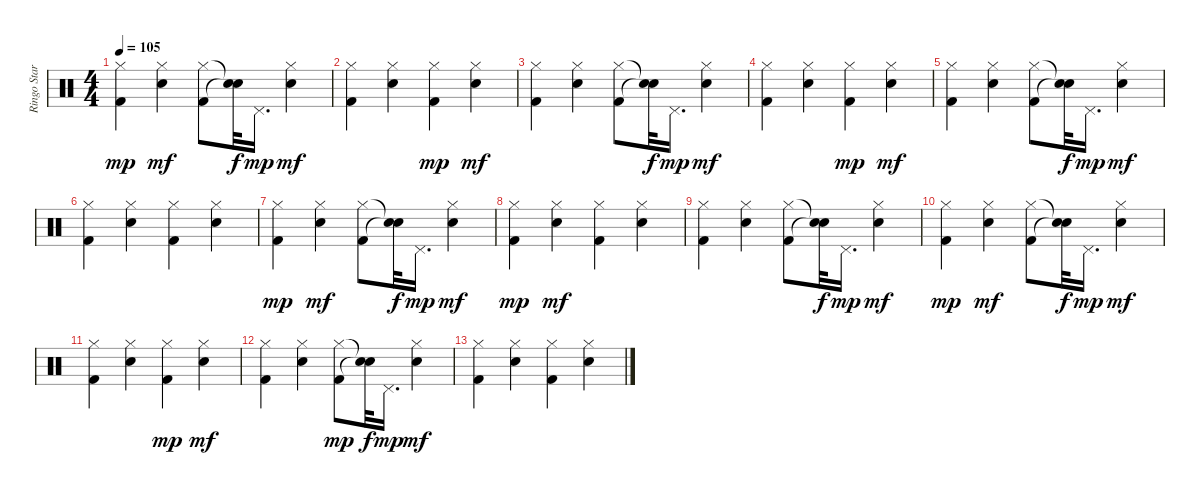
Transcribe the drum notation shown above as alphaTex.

\track ("Ringo Starr" "Ringo Star") {instrument percussion}
\staff {score}
\articulation defaults
\ts (4 4)
\tempo 105
\clef neutral
\ks c
("Kick (hit) 2" "Hi-Hat (closed)").4{dy mp} ("Snare (hit) 2" "Hi-Hat (closed)").4{dy mf} ("Kick (hit) 2" "Hi-Hat (closed)").8 ("Snare (hit)"{t} "Snare (hit)"{t}).32{dy f} "Pedal Hi-Hat (hit)".16{d dy mp} ("Snare (hit) 2" "Hi-Hat (closed)").4{dy mf} |
("Kick (hit) 2" "Hi-Hat (closed)").4 ("Snare (hit) 2" "Hi-Hat (closed)").4 ("Kick (hit) 2" "Hi-Hat (closed)").4{dy mp} ("Snare (hit) 2" "Hi-Hat (closed)").4{dy mf} |
("Kick (hit) 2" "Hi-Hat (closed)").4 ("Snare (hit) 2" "Hi-Hat (closed)").4 ("Kick (hit) 2" "Hi-Hat (closed)").8 ("Snare (hit)"{t} "Snare (hit)"{t}).32{dy f} "Pedal Hi-Hat (hit)".16{d dy mp} ("Snare (hit) 2" "Hi-Hat (closed)").4{dy mf} |
("Kick (hit) 2" "Hi-Hat (closed)").4 ("Snare (hit) 2" "Hi-Hat (closed)").4 ("Kick (hit) 2" "Hi-Hat (closed)").4{dy mp} ("Snare (hit) 2" "Hi-Hat (closed)").4{dy mf} |
("Kick (hit) 2" "Hi-Hat (closed)").4 ("Snare (hit) 2" "Hi-Hat (closed)").4 ("Kick (hit) 2" "Hi-Hat (closed)").8 ("Snare (hit)"{t} "Snare (hit)"{t}).32{dy f} "Pedal Hi-Hat (hit)".16{d dy mp} ("Snare (hit) 2" "Hi-Hat (closed)").4{dy mf} |
("Kick (hit) 2" "Hi-Hat (closed)").4 ("Snare (hit) 2" "Hi-Hat (closed)").4 ("Kick (hit) 2" "Hi-Hat (closed)").4 ("Snare (hit) 2" "Hi-Hat (closed)").4 |
("Kick (hit) 2" "Hi-Hat (closed)").4{dy mp} ("Snare (hit) 2" "Hi-Hat (closed)").4{dy mf} ("Kick (hit) 2" "Hi-Hat (closed)").8 ("Snare (hit)"{t} "Snare (hit)"{t}).32{dy f} "Pedal Hi-Hat (hit)".16{d dy mp} ("Snare (hit) 2" "Hi-Hat (closed)").4{dy mf} |
("Kick (hit) 2" "Hi-Hat (closed)").4{dy mp} ("Snare (hit) 2" "Hi-Hat (closed)").4{dy mf} ("Kick (hit) 2" "Hi-Hat (closed)").4 ("Snare (hit) 2" "Hi-Hat (closed)").4 |
("Kick (hit) 2" "Hi-Hat (closed)").4 ("Snare (hit) 2" "Hi-Hat (closed)").4 ("Kick (hit) 2" "Hi-Hat (closed)").8 ("Snare (hit)"{t} "Snare (hit)"{t}).32{dy f} "Pedal Hi-Hat (hit)".16{d dy mp} ("Snare (hit) 2" "Hi-Hat (closed)").4{dy mf} |
("Kick (hit) 2" "Hi-Hat (closed)").4{dy mp} ("Snare (hit) 2" "Hi-Hat (closed)").4{dy mf} ("Kick (hit) 2" "Hi-Hat (closed)").8 ("Snare (hit)"{t} "Snare (hit)"{t}).32{dy f} "Pedal Hi-Hat (hit)".16{d dy mp} ("Snare (hit) 2" "Hi-Hat (closed)").4{dy mf} |
("Kick (hit) 2" "Hi-Hat (closed)").4 ("Snare (hit) 2" "Hi-Hat (closed)").4 ("Kick (hit) 2" "Hi-Hat (closed)").4{dy mp} ("Snare (hit) 2" "Hi-Hat (closed)").4{dy mf} |
("Kick (hit) 2" "Hi-Hat (closed)").4 ("Snare (hit) 2" "Hi-Hat (closed)").4 ("Kick (hit) 2" "Hi-Hat (closed)").8{dy mp} ("Snare (hit)"{t} "Snare (hit)"{t}).32{dy f} "Pedal Hi-Hat (hit)".16{d dy mp} ("Snare (hit) 2" "Hi-Hat (closed)").4{dy mf} |
("Kick (hit) 2" "Hi-Hat (closed)").4 ("Snare (hit) 2" "Hi-Hat (closed)").4 ("Kick (hit) 2" "Hi-Hat (closed)").4 ("Snare (hit) 2" "Hi-Hat (closed)").4
